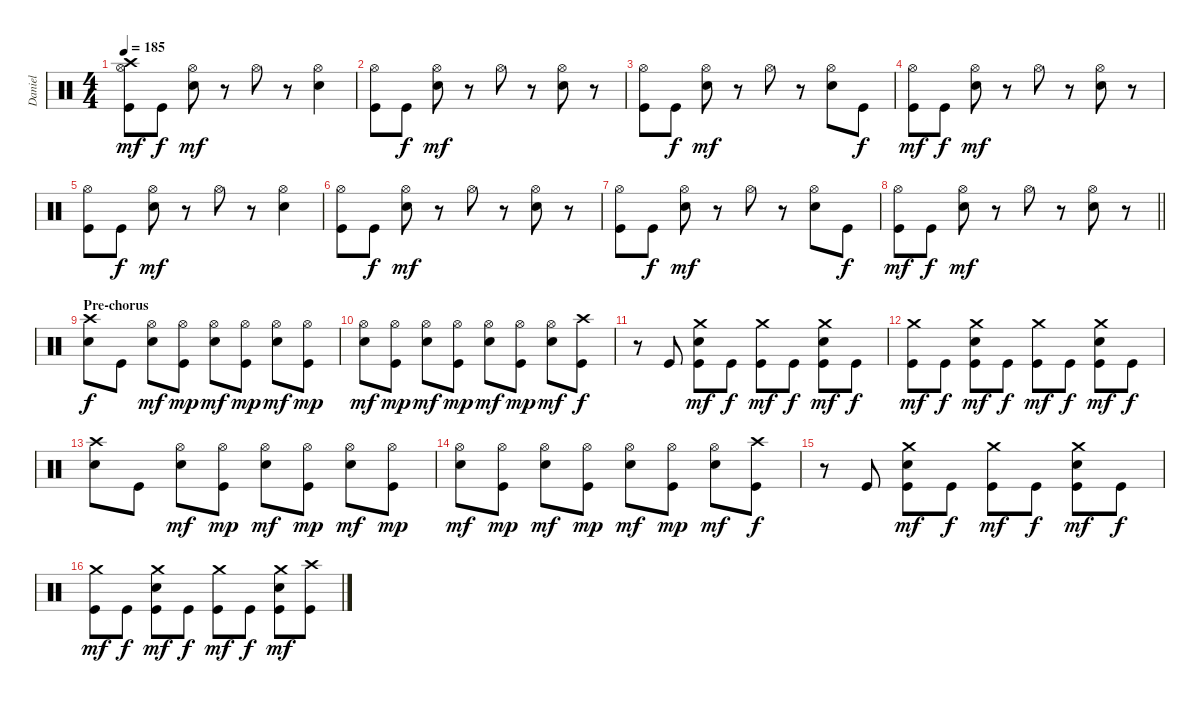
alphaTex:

\track ("Daniel" "Daniel") {instrument percussion}
\staff {score}
\articulation defaults
\ts (4 4)
\tempo 185
\clef neutral
\ks c
("Kick (hit)" "Hi-Hat (open)" "Crash high (hit)").8{dy mf} "Kick (hit)".8{dy f} ("Electric Snare (hit)" "Hi-Hat (open)").8{dy mf} r.8 "Hi-Hat (open)".8 r.8 ("Electric Snare (hit)" "Hi-Hat (open)").4 |
("Kick (hit)" "Hi-Hat (open)").8 "Kick (hit)".8{dy f} ("Electric Snare (hit)" "Hi-Hat (open)").8{dy mf} r.8 "Hi-Hat (open)".8 r.8 ("Electric Snare (hit)" "Hi-Hat (open)").8 r.8 |
("Kick (hit)" "Hi-Hat (open)").8 "Kick (hit)".8{dy f} ("Electric Snare (hit)" "Hi-Hat (open)").8{dy mf} r.8 "Hi-Hat (open)".8 r.8 ("Electric Snare (hit)" "Hi-Hat (open)").8 "Kick (hit)".8{dy f} |
("Kick (hit)" "Hi-Hat (open)").8{dy mf} "Kick (hit)".8{dy f} ("Electric Snare (hit)" "Hi-Hat (open)").8{dy mf} r.8 "Hi-Hat (open)".8 r.8 ("Electric Snare (hit)" "Hi-Hat (open)").8 r.8 |
("Kick (hit)" "Hi-Hat (open)").8 "Kick (hit)".8{dy f} ("Electric Snare (hit)" "Hi-Hat (open)").8{dy mf} r.8 "Hi-Hat (open)".8 r.8 ("Electric Snare (hit)" "Hi-Hat (open)").4 |
("Kick (hit)" "Hi-Hat (open)").8 "Kick (hit)".8{dy f} ("Electric Snare (hit)" "Hi-Hat (open)").8{dy mf} r.8 "Hi-Hat (open)".8 r.8 ("Electric Snare (hit)" "Hi-Hat (open)").8 r.8 |
("Kick (hit)" "Hi-Hat (open)").8 "Kick (hit)".8{dy f} ("Electric Snare (hit)" "Hi-Hat (open)").8{dy mf} r.8 "Hi-Hat (open)".8 r.8 ("Electric Snare (hit)" "Hi-Hat (open)").8 "Kick (hit)".8{dy f} |
\barLineRight lightlight
("Kick (hit)" "Hi-Hat (open)").8{dy mf} "Kick (hit)".8{dy f} ("Electric Snare (hit)" "Hi-Hat (open)").8{dy mf} r.8 "Hi-Hat (open)".8 r.8 ("Electric Snare (hit)" "Hi-Hat (open)").8 r.8 |
\section ("" "Pre-chorus")
("Electric Snare (hit)" "Crash high (hit)").8{dy f} "Kick (hit)".8 ("Electric Snare (hit)" "Hi-Hat (open)").8{dy mf} ("Kick (hit)" "Hi-Hat (open)").8{dy mp} ("Electric Snare (hit)" "Hi-Hat (open)").8{dy mf} ("Kick (hit)" "Hi-Hat (open)").8{dy mp} ("Electric Snare (hit)" "Hi-Hat (open)").8{dy mf} ("Kick (hit)" "Hi-Hat (open)").8{dy mp} |
("Electric Snare (hit)" "Hi-Hat (open)").8{dy mf} ("Kick (hit)" "Hi-Hat (open)").8{dy mp} ("Electric Snare (hit)" "Hi-Hat (open)").8{dy mf} ("Kick (hit)" "Hi-Hat (open)").8{dy mp} ("Electric Snare (hit)" "Hi-Hat (open)").8{dy mf} ("Kick (hit)" "Hi-Hat (open)").8{dy mp} ("Electric Snare (hit)" "Hi-Hat (open)").8{dy mf} ("Kick (hit)" "Crash high (hit)").8{dy f} |
r.8 "Kick (hit)".8 ("Kick (hit)" "Electric Snare (hit)" "Crash medium (hit)").8{dy mf} "Kick (hit)".8{dy f} ("Kick (hit)" "Crash medium (hit)").8{dy mf} "Kick (hit)".8{dy f} ("Kick (hit)" "Electric Snare (hit)" "Crash medium (hit)").8{dy mf} "Kick (hit)".8{dy f} |
("Kick (hit)" "Crash medium (hit)").8{dy mf} "Kick (hit)".8{dy f} ("Kick (hit)" "Electric Snare (hit)" "Crash medium (hit)").8{dy mf} "Kick (hit)".8{dy f} ("Kick (hit)" "Crash medium (hit)").8{dy mf} "Kick (hit)".8{dy f} ("Kick (hit)" "Electric Snare (hit)" "Crash medium (hit)").8{dy mf} "Kick (hit)".8{dy f} |
("Electric Snare (hit)" "Crash high (hit)").8 "Kick (hit)".8 ("Electric Snare (hit)" "Hi-Hat (open)").8{dy mf} ("Kick (hit)" "Hi-Hat (open)").8{dy mp} ("Electric Snare (hit)" "Hi-Hat (open)").8{dy mf} ("Kick (hit)" "Hi-Hat (open)").8{dy mp} ("Electric Snare (hit)" "Hi-Hat (open)").8{dy mf} ("Kick (hit)" "Hi-Hat (open)").8{dy mp} |
("Electric Snare (hit)" "Hi-Hat (open)").8{dy mf} ("Kick (hit)" "Hi-Hat (open)").8{dy mp} ("Electric Snare (hit)" "Hi-Hat (open)").8{dy mf} ("Kick (hit)" "Hi-Hat (open)").8{dy mp} ("Electric Snare (hit)" "Hi-Hat (open)").8{dy mf} ("Kick (hit)" "Hi-Hat (open)").8{dy mp} ("Electric Snare (hit)" "Hi-Hat (open)").8{dy mf} ("Kick (hit)" "Crash high (hit)").8{dy f} |
r.8 "Kick (hit)".8 ("Kick (hit)" "Electric Snare (hit)" "Crash medium (hit)").8{dy mf} "Kick (hit)".8{dy f} ("Kick (hit)" "Crash medium (hit)").8{dy mf} "Kick (hit)".8{dy f} ("Kick (hit)" "Electric Snare (hit)" "Crash medium (hit)").8{dy mf} "Kick (hit)".8{dy f} |
("Kick (hit)" "Crash medium (hit)").8{dy mf} "Kick (hit)".8{dy f} ("Kick (hit)" "Electric Snare (hit)" "Crash medium (hit)").8{dy mf} "Kick (hit)".8{dy f} ("Kick (hit)" "Crash medium (hit)").8{dy mf} "Kick (hit)".8{dy f} ("Kick (hit)" "Electric Snare (hit)" "Crash medium (hit)").8{dy mf} ("Kick (hit)" "Crash high (hit)").8
